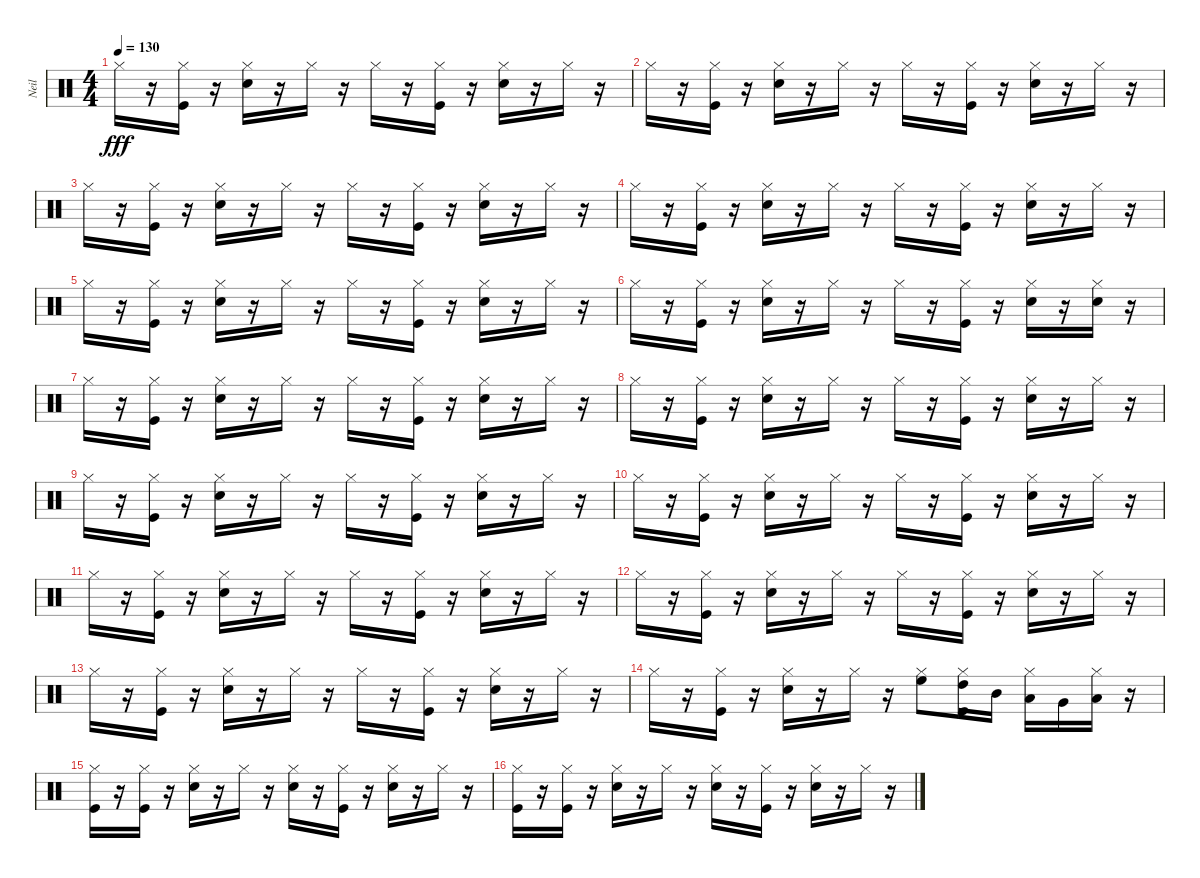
\track ("Neil" "Neil") {instrument percussion}
\staff {score}
\articulation defaults
\ts (4 4)
\tempo 130
\clef neutral
\ks c "Hi-Hat (closed)".16{dy fff}
r.16 ("Kick (hit)" "Hi-Hat (closed)").16 r.16 ("Hi-Hat (closed)" "Electric Snare (hit)").16 r.16 "Hi-Hat (closed)".16 r.16 "Hi-Hat (closed)".16 r.16 ("Hi-Hat (closed)" "Kick (hit)").16 r.16 ("Hi-Hat (closed)" "Electric Snare (hit)").16 r.16 "Hi-Hat (closed)".16 r.16 |
"Hi-Hat (closed)".16 r.16 ("Kick (hit)" "Hi-Hat (closed)").16 r.16 ("Hi-Hat (closed)" "Electric Snare (hit)").16 r.16 "Hi-Hat (closed)".16 r.16 "Hi-Hat (closed)".16 r.16 ("Hi-Hat (closed)" "Kick (hit)").16 r.16 ("Hi-Hat (closed)" "Electric Snare (hit)").16 r.16 "Hi-Hat (closed)".16 r.16 |
"Hi-Hat (closed)".16 r.16 ("Kick (hit)" "Hi-Hat (closed)").16 r.16 ("Hi-Hat (closed)" "Electric Snare (hit)").16 r.16 "Hi-Hat (closed)".16 r.16 "Hi-Hat (closed)".16 r.16 ("Hi-Hat (closed)" "Kick (hit)").16 r.16 ("Hi-Hat (closed)" "Electric Snare (hit)").16 r.16 "Hi-Hat (closed)".16 r.16 |
"Hi-Hat (closed)".16 r.16 ("Kick (hit)" "Hi-Hat (closed)").16 r.16 ("Hi-Hat (closed)" "Electric Snare (hit)").16 r.16 "Hi-Hat (closed)".16 r.16 "Hi-Hat (closed)".16 r.16 ("Hi-Hat (closed)" "Kick (hit)").16 r.16 ("Hi-Hat (closed)" "Electric Snare (hit)").16 r.16 "Hi-Hat (closed)".16 r.16 |
"Hi-Hat (closed)".16 r.16 ("Kick (hit)" "Hi-Hat (closed)").16 r.16 ("Hi-Hat (closed)" "Electric Snare (hit)").16 r.16 "Hi-Hat (closed)".16 r.16 "Hi-Hat (closed)".16 r.16 ("Hi-Hat (closed)" "Kick (hit)").16 r.16 ("Hi-Hat (closed)" "Electric Snare (hit)").16 r.16 "Hi-Hat (closed)".16 r.16 |
"Hi-Hat (closed)".16 r.16 ("Kick (hit)" "Hi-Hat (closed)").16 r.16 ("Hi-Hat (closed)" "Electric Snare (hit)").16 r.16 "Hi-Hat (closed)".16 r.16 "Hi-Hat (closed)".16 r.16 ("Hi-Hat (closed)" "Kick (hit)").16 r.16 ("Hi-Hat (closed)" "Electric Snare (hit)").16 r.16 ("Hi-Hat (closed)" "Electric Snare (hit)").16 r.16 |
"Hi-Hat (closed)".16 r.16 ("Kick (hit)" "Hi-Hat (closed)").16 r.16 ("Hi-Hat (closed)" "Electric Snare (hit)").16 r.16 "Hi-Hat (closed)".16 r.16 "Hi-Hat (closed)".16 r.16 ("Hi-Hat (closed)" "Kick (hit)").16 r.16 ("Hi-Hat (closed)" "Electric Snare (hit)").16 r.16 "Hi-Hat (closed)".16 r.16 |
"Hi-Hat (closed)".16 r.16 ("Kick (hit)" "Hi-Hat (closed)").16 r.16 ("Hi-Hat (closed)" "Electric Snare (hit)").16 r.16 "Hi-Hat (closed)".16 r.16 "Hi-Hat (closed)".16 r.16 ("Hi-Hat (closed)" "Kick (hit)").16 r.16 ("Hi-Hat (closed)" "Electric Snare (hit)").16 r.16 "Hi-Hat (closed)".16 r.16 |
"Hi-Hat (closed)".16 r.16 ("Kick (hit)" "Hi-Hat (closed)").16 r.16 ("Hi-Hat (closed)" "Electric Snare (hit)").16 r.16 "Hi-Hat (closed)".16 r.16 "Hi-Hat (closed)".16 r.16 ("Hi-Hat (closed)" "Kick (hit)").16 r.16 ("Hi-Hat (closed)" "Electric Snare (hit)").16 r.16 "Hi-Hat (closed)".16 r.16 |
"Hi-Hat (closed)".16 r.16 ("Kick (hit)" "Hi-Hat (closed)").16 r.16 ("Hi-Hat (closed)" "Electric Snare (hit)").16 r.16 "Hi-Hat (closed)".16 r.16 "Hi-Hat (closed)".16 r.16 ("Hi-Hat (closed)" "Kick (hit)").16 r.16 ("Hi-Hat (closed)" "Electric Snare (hit)").16 r.16 "Hi-Hat (closed)".16 r.16 |
"Hi-Hat (closed)".16 r.16 ("Kick (hit)" "Hi-Hat (closed)").16 r.16 ("Hi-Hat (closed)" "Electric Snare (hit)").16 r.16 "Hi-Hat (closed)".16 r.16 "Hi-Hat (closed)".16 r.16 ("Hi-Hat (closed)" "Kick (hit)").16 r.16 ("Hi-Hat (closed)" "Electric Snare (hit)").16 r.16 "Hi-Hat (closed)".16 r.16 |
"Hi-Hat (closed)".16 r.16 ("Kick (hit)" "Hi-Hat (closed)").16 r.16 ("Hi-Hat (closed)" "Electric Snare (hit)").16 r.16 "Hi-Hat (closed)".16 r.16 "Hi-Hat (closed)".16 r.16 ("Hi-Hat (closed)" "Kick (hit)").16 r.16 ("Hi-Hat (closed)" "Electric Snare (hit)").16 r.16 "Hi-Hat (closed)".16 r.16 |
"Hi-Hat (closed)".16 r.16 ("Kick (hit)" "Hi-Hat (closed)").16 r.16 ("Hi-Hat (closed)" "Electric Snare (hit)").16 r.16 "Hi-Hat (closed)".16 r.16 "Hi-Hat (closed)".16 r.16 ("Hi-Hat (closed)" "Kick (hit)").16 r.16 ("Hi-Hat (closed)" "Electric Snare (hit)").16 r.16 "Hi-Hat (closed)".16 r.16 |
"Hi-Hat (closed)".16 r.16 ("Kick (hit)" "Hi-Hat (closed)").16 r.16 ("Hi-Hat (closed)" "Electric Snare (hit)").16 r.16 "Hi-Hat (closed)".16 r.16 ("Hi-Hat (closed)" "High Floor Tom (hit)").8 ("Hi-Hat (closed)" "High Tom (hit)" "Kick (hit)").16 "Mid Tom (hit)".16 ("Hi-Hat (closed)" "Low Tom (hit)").16 "Very Low Tom (hit)".16 ("Hi-Hat (closed)" "Low Floor Tom (hit)").16 r.16 |
("Hi-Hat (closed)" "Kick (hit)").16 r.16 ("Kick (hit)" "Hi-Hat (closed)").16 r.16 ("Hi-Hat (closed)" "Electric Snare (hit)").16 r.16 "Hi-Hat (closed)".16 r.16 ("Hi-Hat (closed)" "Electric Snare (hit)").16 r.16 ("Hi-Hat (closed)" "Kick (hit)").16 r.16 ("Hi-Hat (closed)" "Electric Snare (hit)").16 r.16 "Hi-Hat (closed)".16 r.16 |
("Hi-Hat (closed)" "Kick (hit)").16 r.16 ("Kick (hit)" "Hi-Hat (closed)").16 r.16 ("Hi-Hat (closed)" "Electric Snare (hit)").16 r.16 "Hi-Hat (closed)".16 r.16 ("Hi-Hat (closed)" "Electric Snare (hit)").16 r.16 ("Hi-Hat (closed)" "Kick (hit)").16 r.16 ("Hi-Hat (closed)" "Electric Snare (hit)").16 r.16 "Hi-Hat (closed)".16 r.16
